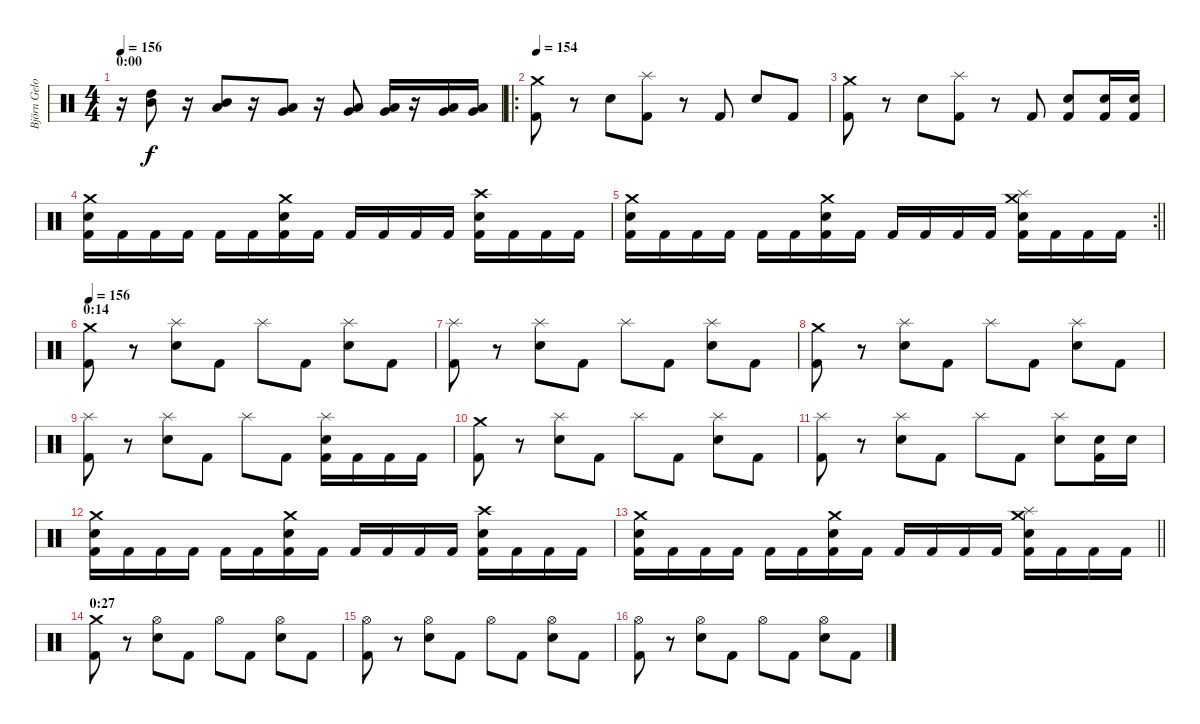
\track ("Björn Gelotte" "Björn Gelo") {instrument percussion}
\staff {score}
\articulation defaults
\ts (4 4)
\section ("" "0:00")
\tempo 156
\clef neutral
\ks c
r.16{dy f} ("Mid Tom (hit)" "High Tom (hit)").8 r.16 ("Low Tom (hit)" "Mid Tom (hit)").8 r.16 ("Very Low Tom (hit)" "Low Tom (hit)").8 r.16 ("Very Low Tom (hit)" "Low Floor Tom (hit)").8 ("Very Low Tom (hit)" "Low Floor Tom (hit)").16 r.16 ("Very Low Tom (hit)" "Low Floor Tom (hit)").16 ("Very Low Tom (hit)" "Low Floor Tom (hit)").16 |
\ro
\tempo 154
("Crash medium (hit)" "Kick (hit) 2").8 r.8 "Electric Snare (hit)".8 ("Splash (hit)" "Kick (hit) 2").8 r.8 "Kick (hit) 2".8 "Electric Snare (hit)".8 "Kick (hit) 2".8 |
("Crash medium (hit)" "Kick (hit) 2").8 r.8 "Electric Snare (hit)".8 ("Splash (hit)" "Kick (hit) 2").8 r.8 "Kick (hit) 2".8 ("Electric Snare (hit)" "Kick (hit) 2").8 ("Electric Snare (hit)" "Kick (hit) 2").16 ("Electric Snare (hit)" "Kick (hit) 2").16 |
("Crash medium (hit)" "Electric Snare (hit)" "Kick (hit) 2").16 "Kick (hit) 2".16 "Kick (hit) 2".16 "Kick (hit) 2".16 "Kick (hit) 2".16 "Kick (hit) 2".16 ("Crash medium (hit)" "Electric Snare (hit)" "Kick (hit) 2").16 "Kick (hit) 2".16 "Kick (hit) 2".16 "Kick (hit) 2".16 "Kick (hit) 2".16 "Kick (hit) 2".16 ("Crash high (hit)" "Electric Snare (hit)" "Kick (hit) 2").16 "Kick (hit) 2".16 "Kick (hit) 2".16 "Kick (hit) 2".16 |
\rc 2
\barLineRight lightlight
("Crash medium (hit)" "Electric Snare (hit)" "Kick (hit) 2").16 "Kick (hit) 2".16 "Kick (hit) 2".16 "Kick (hit) 2".16 "Kick (hit) 2".16 "Kick (hit) 2".16 ("Crash medium (hit)" "Electric Snare (hit)" "Kick (hit) 2").16 "Kick (hit) 2".16 "Kick (hit) 2".16 "Kick (hit) 2".16 "Kick (hit) 2".16 "Kick (hit) 2".16 ("Crash medium (hit)" "Splash (hit)" "Electric Snare (hit)" "Kick (hit) 2").16 "Kick (hit) 2".16 "Kick (hit) 2".16 "Kick (hit) 2".16 |
\section ("" "0:14")
\tempo 156
("Crash medium (hit)" "Kick (hit) 2").8 r.8 ("Splash (hit)" "Electric Snare (hit)").8 "Kick (hit) 2".8 "Splash (hit)".8 "Kick (hit) 2".8 ("Splash (hit)" "Electric Snare (hit)").8 "Kick (hit) 2".8 |
("Splash (hit)" "Kick (hit) 2").8 r.8 ("Splash (hit)" "Electric Snare (hit)").8 "Kick (hit) 2".8 "Splash (hit)".8 "Kick (hit) 2".8 ("Splash (hit)" "Electric Snare (hit)").8 "Kick (hit) 2".8 |
("Crash medium (hit)" "Kick (hit) 2").8 r.8 ("Splash (hit)" "Electric Snare (hit)").8 "Kick (hit) 2".8 "Splash (hit)".8 "Kick (hit) 2".8 ("Splash (hit)" "Electric Snare (hit)").8 "Kick (hit) 2".8 |
("Splash (hit)" "Kick (hit) 2").8 r.8 ("Splash (hit)" "Electric Snare (hit)").8 "Kick (hit) 2".8 "Splash (hit)".8 "Kick (hit) 2".8 ("Splash (hit)" "Electric Snare (hit)" "Kick (hit) 2").16 "Kick (hit) 2".16 "Kick (hit) 2".16 "Kick (hit) 2".16 |
("Crash medium (hit)" "Kick (hit) 2").8 r.8 ("Splash (hit)" "Electric Snare (hit)").8 "Kick (hit) 2".8 "Splash (hit)".8 "Kick (hit) 2".8 ("Splash (hit)" "Electric Snare (hit)").8 "Kick (hit) 2".8 |
("Splash (hit)" "Kick (hit) 2").8 r.8 ("Splash (hit)" "Electric Snare (hit)").8 "Kick (hit) 2".8 "Splash (hit)".8 "Kick (hit) 2".8 ("Splash (hit)" "Electric Snare (hit)").8 ("Electric Snare (hit)" "Kick (hit) 2").16 "Electric Snare (hit)".16 |
("Crash medium (hit)" "Electric Snare (hit)" "Kick (hit) 2").16 "Kick (hit) 2".16 "Kick (hit) 2".16 "Kick (hit) 2".16 "Kick (hit) 2".16 "Kick (hit) 2".16 ("Crash medium (hit)" "Electric Snare (hit)" "Kick (hit) 2").16 "Kick (hit) 2".16 "Kick (hit) 2".16 "Kick (hit) 2".16 "Kick (hit) 2".16 "Kick (hit) 2".16 ("Crash high (hit)" "Electric Snare (hit)" "Kick (hit) 2").16 "Kick (hit) 2".16 "Kick (hit) 2".16 "Kick (hit) 2".16 |
\barLineRight lightlight
("Crash medium (hit)" "Electric Snare (hit)" "Kick (hit) 2").16 "Kick (hit) 2".16 "Kick (hit) 2".16 "Kick (hit) 2".16 "Kick (hit) 2".16 "Kick (hit) 2".16 ("Crash medium (hit)" "Electric Snare (hit)" "Kick (hit) 2").16 "Kick (hit) 2".16 "Kick (hit) 2".16 "Kick (hit) 2".16 "Kick (hit) 2".16 "Kick (hit) 2".16 ("Crash medium (hit)" "Splash (hit)" "Electric Snare (hit)" "Kick (hit) 2").16 "Kick (hit) 2".16 "Kick (hit) 2".16 "Kick (hit) 2".16 |
\section ("" "0:27")
("Crash medium (hit)" "Kick (hit) 2").8 r.8 ("Hi-Hat (open)" "Electric Snare (hit)").8 "Kick (hit) 2".8 "Hi-Hat (open)".8 "Kick (hit) 2".8 ("Hi-Hat (open)" "Electric Snare (hit)").8 "Kick (hit) 2".8 |
("Hi-Hat (open)" "Kick (hit) 2").8 r.8 ("Hi-Hat (open)" "Electric Snare (hit)").8 "Kick (hit) 2".8 "Hi-Hat (open)".8 "Kick (hit) 2".8 ("Hi-Hat (open)" "Electric Snare (hit)").8 "Kick (hit) 2".8 |
("Hi-Hat (open)" "Kick (hit) 2").8 r.8 ("Hi-Hat (open)" "Electric Snare (hit)").8 "Kick (hit) 2".8 "Hi-Hat (open)".8 "Kick (hit) 2".8 ("Hi-Hat (open)" "Electric Snare (hit)").8 "Kick (hit) 2".8
